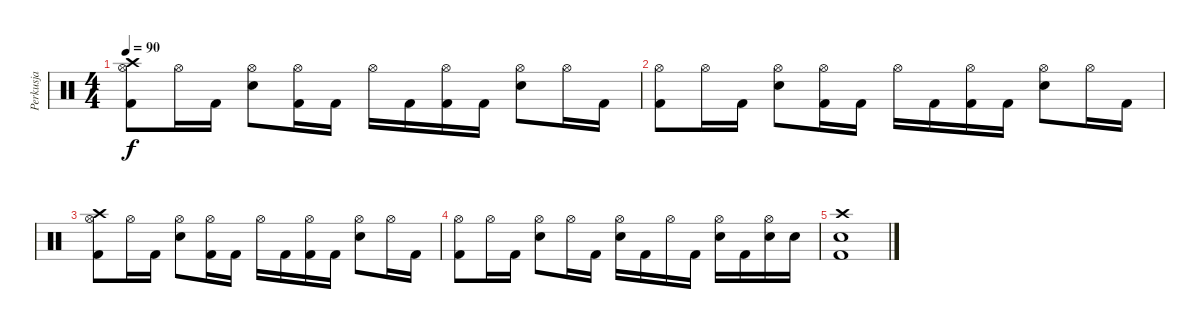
\track ("Perkusja" "Perkusja") {instrument percussion}
\staff {score}
\articulation defaults
\ts (4 4)
\tempo 90
\clef neutral
\ks c
("Hi-Hat (open)" "Kick (hit) 2" "Crash high (hit)").8{dy f} "Hi-Hat (open)".16 "Kick (hit) 2".16 ("Hi-Hat (open)" "Snare (hit) 2").8 ("Hi-Hat (open)" "Kick (hit) 2").16 "Kick (hit) 2".16 "Hi-Hat (open)".16 "Kick (hit) 2".16 ("Hi-Hat (open)" "Kick (hit) 2").16 "Kick (hit) 2".16 ("Hi-Hat (open)" "Snare (hit) 2").8 "Hi-Hat (open)".16 "Kick (hit) 2".16 |
("Hi-Hat (open)" "Kick (hit) 2").8 "Hi-Hat (open)".16 "Kick (hit) 2".16 ("Hi-Hat (open)" "Snare (hit) 2").8 ("Hi-Hat (open)" "Kick (hit) 2").16 "Kick (hit) 2".16 "Hi-Hat (open)".16 "Kick (hit) 2".16 ("Hi-Hat (open)" "Kick (hit) 2").16 "Kick (hit) 2".16 ("Hi-Hat (open)" "Snare (hit) 2").8 "Hi-Hat (open)".16 "Kick (hit) 2".16 |
("Hi-Hat (open)" "Kick (hit) 2" "Crash high (hit)").8 "Hi-Hat (open)".16 "Kick (hit) 2".16 ("Hi-Hat (open)" "Snare (hit) 2").8 ("Hi-Hat (open)" "Kick (hit) 2").16 "Kick (hit) 2".16 "Hi-Hat (open)".16 "Kick (hit) 2".16 ("Hi-Hat (open)" "Kick (hit) 2").16 "Kick (hit) 2".16 ("Hi-Hat (open)" "Snare (hit) 2").8 "Hi-Hat (open)".16 "Kick (hit) 2".16 |
("Hi-Hat (open)" "Kick (hit) 2").8 "Hi-Hat (open)".16 "Kick (hit) 2".16 ("Hi-Hat (open)" "Snare (hit) 2").8 "Hi-Hat (open)".16 "Kick (hit) 2".16 ("Hi-Hat (open)" "Snare (hit) 2").16 "Kick (hit) 2".16 "Hi-Hat (open)".16 "Kick (hit) 2".16 ("Hi-Hat (open)" "Snare (hit) 2").16 "Kick (hit) 2".16 ("Hi-Hat (open)" "Snare (hit) 2").16 "Snare (hit) 2".16 |
("Snare (hit) 2" "Kick (hit) 2" "Crash high (hit)").1
